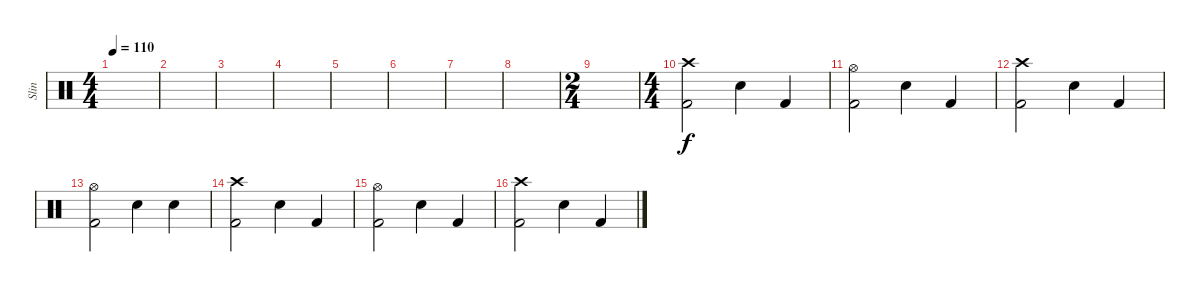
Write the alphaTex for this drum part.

\track ("Slin" "Slin") {instrument percussion}
\staff {score}
\articulation defaults
\ts (4 4)
\tempo 110
\clef neutral
\ks c
|
|
|
|
|
|
|
|
\ts (2 4)
|
\ts (4 4)
("Crash high (hit)" "Kick (hit) 2").2 "Snare (hit) 2".4 "Kick (hit) 2".4 |
("Hi-Hat (open)" "Kick (hit) 2").2 "Snare (hit) 2".4 "Kick (hit) 2".4 |
("Crash high (hit)" "Kick (hit) 2").2 "Snare (hit) 2".4 "Kick (hit) 2".4 |
("Hi-Hat (open)" "Kick (hit) 2").2 "Snare (hit) 2".4 "Snare (hit) 2".4 |
("Crash high (hit)" "Kick (hit) 2").2 "Snare (hit) 2".4 "Kick (hit) 2".4 |
("Hi-Hat (open)" "Kick (hit) 2").2 "Snare (hit) 2".4 "Kick (hit) 2".4 |
("Crash high (hit)" "Kick (hit) 2").2 "Snare (hit) 2".4 "Kick (hit) 2".4
